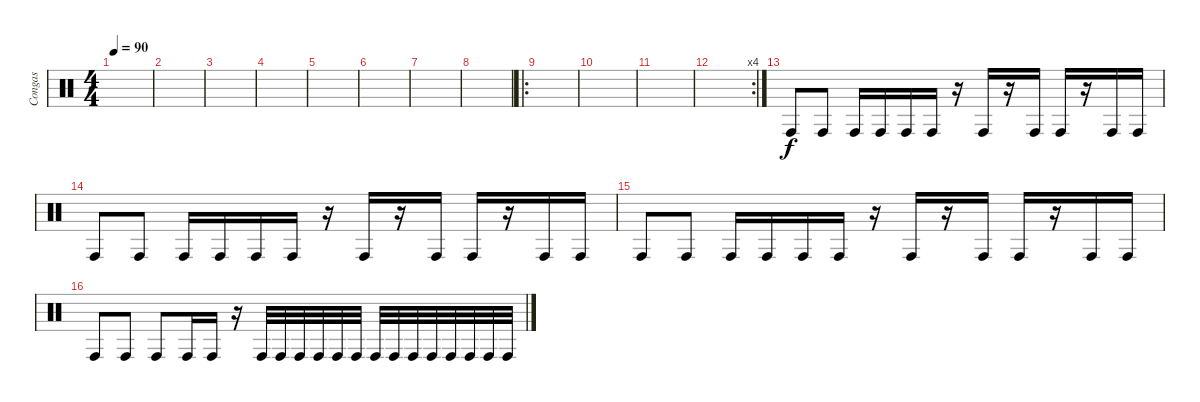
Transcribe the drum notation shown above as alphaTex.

\track ("Congas" "Congas") {instrument percussion}
\staff {score}
\articulation defaults
\ts (4 4)
\tempo 90
\clef neutral
\ks c
|
|
|
|
|
|
|
|
\ro
|
|
|
\rc 4
|
"Conga high (hit)".8 "Conga high (hit)".8 "Conga high (hit)".16 "Conga high (hit)".16 "Conga high (hit)".16 "Conga high (hit)".16 r.16 "Conga high (hit)".16 r.16 "Conga high (hit)".16 "Conga high (hit)".16 r.16 "Conga high (hit)".16 "Conga high (hit)".16 |
"Conga high (hit)".8 "Conga high (hit)".8 "Conga high (hit)".16 "Conga high (hit)".16 "Conga high (hit)".16 "Conga high (hit)".16 r.16 "Conga high (hit)".16 r.16 "Conga high (hit)".16 "Conga high (hit)".16 r.16 "Conga high (hit)".16 "Conga high (hit)".16 |
"Conga high (hit)".8 "Conga high (hit)".8 "Conga high (hit)".16 "Conga high (hit)".16 "Conga high (hit)".16 "Conga high (hit)".16 r.16 "Conga high (hit)".16 r.16 "Conga high (hit)".16 "Conga high (hit)".16 r.16 "Conga high (hit)".16 "Conga high (hit)".16 |
"Conga high (hit)".8 "Conga high (hit)".8 "Conga high (hit)".8 "Conga high (hit)".16 "Conga high (hit)".16 r.16 "Conga high (hit)".32 "Conga high (hit)".32 "Conga high (hit)".32 "Conga high (hit)".32 "Conga high (hit)".32 "Conga high (hit)".32 "Conga high (hit)".32 "Conga high (hit)".32 "Conga high (hit)".32 "Conga high (hit)".32 "Conga high (hit)".32 "Conga high (hit)".32 "Conga high (hit)".32 "Conga high (hit)".32
